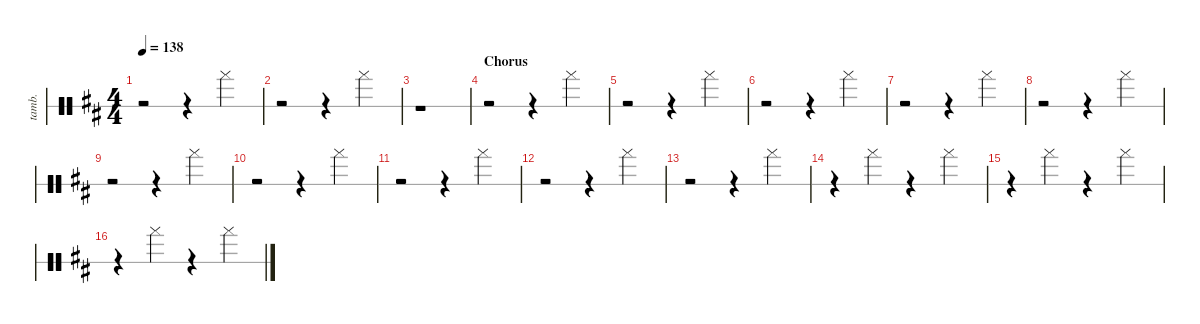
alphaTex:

\hideDynamics
\bracketExtendMode groupsimilarinstruments
\otherSystemsTrackNameOrientation horizontal
\track ("Tambourine" "tamb.") {instrument percussion}
\staff {score 1}
\articulation defaults
\ts (4 4)
\tempo 138
\clef neutral
\ks d
r.2{dy mf} r.4 "Tambourine (hand)"{acc forcenatural}.4 |
r.2 r.4 "Tambourine (hand)"{acc forcenatural}.4 |
r.1 |
\section ("" "Chorus")
r.2 r.4 "Tambourine (hand)"{acc forcenatural}.4 |
r.2 r.4 "Tambourine (hand)"{acc forcenatural}.4 |
r.2 r.4 "Tambourine (hand)"{acc forcenatural}.4 |
r.2 r.4 "Tambourine (hand)"{acc forcenatural}.4 |
r.2 r.4 "Tambourine (hand)"{acc forcenatural}.4 |
r.2 r.4 "Tambourine (hand)"{acc forcenatural}.4 |
r.2 r.4 "Tambourine (hand)"{acc forcenatural}.4 |
r.2 r.4 "Tambourine (hand)"{acc forcenatural}.4 |
r.2 r.4 "Tambourine (hand)"{acc forcenatural}.4 |
r.2 r.4 "Tambourine (hand)"{acc forcenatural}.4 |
r.4 "Tambourine (hand)"{acc forcenatural}.4 r.4 "Tambourine (hand)"{acc forcenatural}.4 |
r.4 "Tambourine (hand)"{acc forcenatural}.4 r.4 "Tambourine (hand)"{acc forcenatural}.4 |
r.4 "Tambourine (hand)"{acc forcenatural}.4 r.4 "Tambourine (hand)"{acc forcenatural}.4
